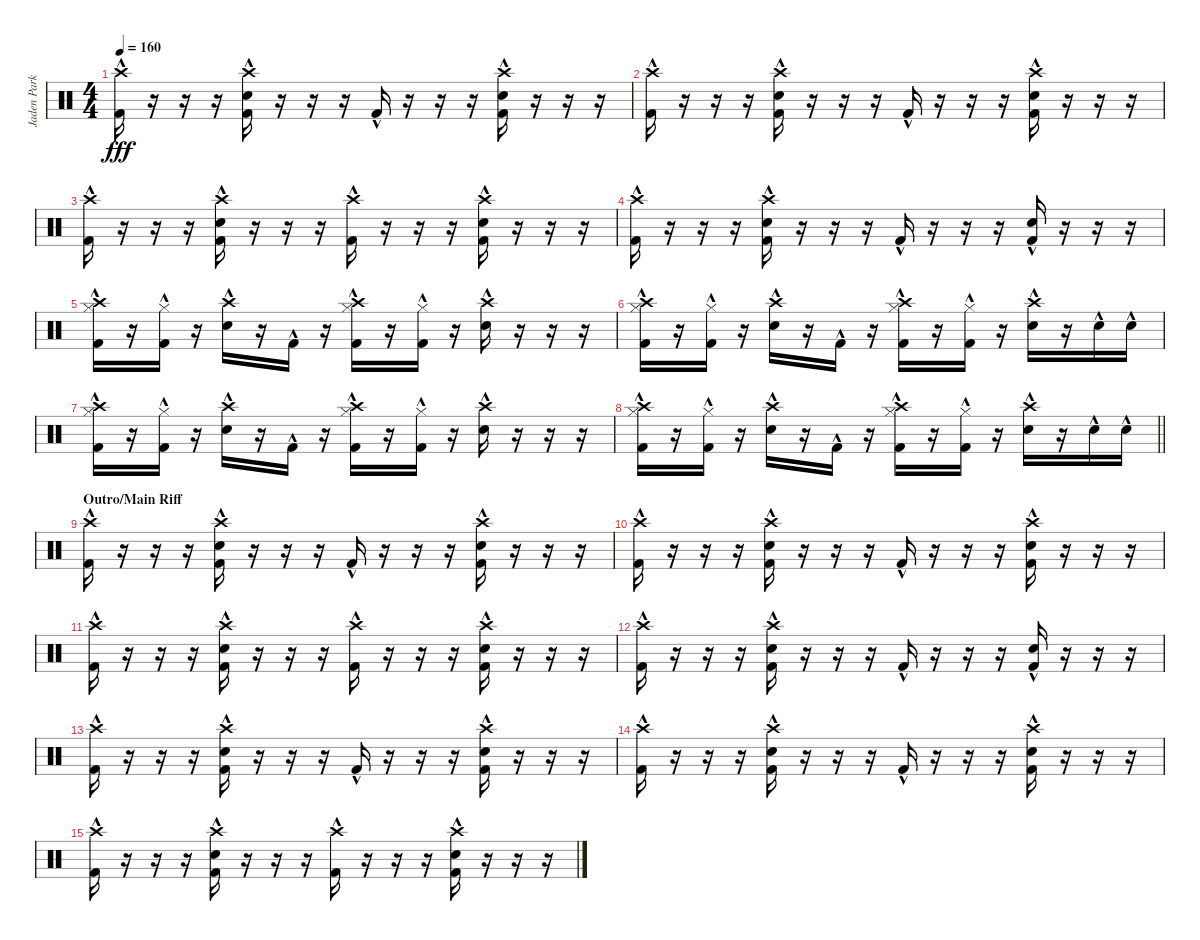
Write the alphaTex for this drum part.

\track ("Jaden Parkes" "Jaden Park") {instrument percussion}
\staff {score}
\articulation defaults
\ts (4 4)
\tempo 160
\clef neutral
\ks c
("Crash high (hit)" "Kick (hit) 2"{hac}).16{dy fff} r.16 r.16 r.16 ("Crash high (hit)"{hac} "Electric Snare (hit)" "Kick (hit) 2"{hac}).16 r.16 r.16 r.16 "Kick (hit) 2"{hac}.16 r.16 r.16 r.16 ("Crash high (hit)"{hac} "Electric Snare (hit)" "Kick (hit) 2"{hac}).16 r.16 r.16 r.16 |
("Crash high (hit)" "Kick (hit) 2"{hac}).16 r.16 r.16 r.16 ("Crash high (hit)"{hac} "Electric Snare (hit)" "Kick (hit) 2"{hac}).16 r.16 r.16 r.16 "Kick (hit) 2"{hac}.16 r.16 r.16 r.16 ("Crash high (hit)"{hac} "Electric Snare (hit)" "Kick (hit) 2"{hac}).16 r.16 r.16 r.16 |
("Crash high (hit)" "Kick (hit) 2"{hac}).16 r.16 r.16 r.16 ("Crash high (hit)"{hac} "Electric Snare (hit)" "Kick (hit) 2"{hac}).16 r.16 r.16 r.16 ("Crash high (hit)" "Kick (hit) 2"{hac}).16 r.16 r.16 r.16 ("Crash high (hit)"{hac} "Electric Snare (hit)" "Kick (hit) 2"{hac}).16 r.16 r.16 r.16 |
("Crash high (hit)" "Kick (hit) 2"{hac}).16 r.16 r.16 r.16 ("Crash high (hit)"{hac} "Electric Snare (hit)" "Kick (hit) 2"{hac}).16 r.16 r.16 r.16 "Kick (hit) 2"{hac}.16 r.16 r.16 r.16 ("Electric Snare (hit)" "Kick (hit) 2"{hac}).16 r.16 r.16 r.16 |
("Hi-Hat (closed)"{hac} "Crash high (hit)" "Kick (hit) 2"{hac}).16 r.16 ("Hi-Hat (closed)"{hac} "Kick (hit) 2"{hac}).16 r.16 ("Crash high (hit)"{hac} "Electric Snare (hit)"{hac}).16 r.16 "Kick (hit) 2"{hac}.16 r.16 ("Hi-Hat (closed)"{hac} "Crash high (hit)" "Kick (hit) 2"{hac}).16 r.16 ("Hi-Hat (closed)"{hac} "Kick (hit) 2"{hac}).16 r.16 ("Crash high (hit)"{hac} "Electric Snare (hit)"{hac}).16 r.16 r.16 r.16 |
("Hi-Hat (closed)"{hac} "Crash high (hit)" "Kick (hit) 2"{hac}).16 r.16 ("Hi-Hat (closed)"{hac} "Kick (hit) 2"{hac}).16 r.16 ("Crash high (hit)"{hac} "Electric Snare (hit)"{hac}).16 r.16 "Kick (hit) 2"{hac}.16 r.16 ("Hi-Hat (closed)"{hac} "Crash high (hit)" "Kick (hit) 2"{hac}).16 r.16 ("Hi-Hat (closed)"{hac} "Kick (hit) 2"{hac}).16 r.16 ("Crash high (hit)"{hac} "Electric Snare (hit)"{hac}).16 r.16 "Electric Snare (hit)"{hac}.16 "Electric Snare (hit)"{hac}.16 |
("Hi-Hat (closed)"{hac} "Crash high (hit)" "Kick (hit) 2"{hac}).16 r.16 ("Hi-Hat (closed)"{hac} "Kick (hit) 2"{hac}).16 r.16 ("Crash high (hit)"{hac} "Electric Snare (hit)"{hac}).16 r.16 "Kick (hit) 2"{hac}.16 r.16 ("Hi-Hat (closed)"{hac} "Crash high (hit)" "Kick (hit) 2"{hac}).16 r.16 ("Hi-Hat (closed)"{hac} "Kick (hit) 2"{hac}).16 r.16 ("Crash high (hit)"{hac} "Electric Snare (hit)"{hac}).16 r.16 r.16 r.16 |
\barLineRight lightlight
("Hi-Hat (closed)"{hac} "Crash high (hit)" "Kick (hit) 2"{hac}).16 r.16 ("Hi-Hat (closed)"{hac} "Kick (hit) 2"{hac}).16 r.16 ("Crash high (hit)"{hac} "Electric Snare (hit)"{hac}).16 r.16 "Kick (hit) 2"{hac}.16 r.16 ("Hi-Hat (closed)"{hac} "Crash high (hit)" "Kick (hit) 2"{hac}).16 r.16 ("Hi-Hat (closed)"{hac} "Kick (hit) 2"{hac}).16 r.16 ("Crash high (hit)"{hac} "Electric Snare (hit)"{hac}).16 r.16 "Electric Snare (hit)"{hac}.16 "Electric Snare (hit)"{hac}.16 |
\section ("" "Outro/Main Riff")
("Crash high (hit)" "Kick (hit) 2"{hac}).16{volume 16} r.16 r.16 r.16 ("Crash high (hit)"{hac} "Electric Snare (hit)" "Kick (hit) 2"{hac}).16 r.16 r.16 r.16 "Kick (hit) 2"{hac}.16 r.16 r.16 r.16 ("Crash high (hit)"{hac} "Electric Snare (hit)" "Kick (hit) 2"{hac}).16 r.16 r.16 r.16 |
("Crash high (hit)" "Kick (hit) 2"{hac}).16 r.16 r.16 r.16 ("Crash high (hit)"{hac} "Electric Snare (hit)" "Kick (hit) 2"{hac}).16 r.16 r.16 r.16 "Kick (hit) 2"{hac}.16 r.16 r.16 r.16 ("Crash high (hit)"{hac} "Electric Snare (hit)" "Kick (hit) 2"{hac}).16 r.16 r.16 r.16 |
("Crash high (hit)" "Kick (hit) 2"{hac}).16 r.16 r.16 r.16 ("Crash high (hit)"{hac} "Electric Snare (hit)" "Kick (hit) 2"{hac}).16 r.16 r.16 r.16 ("Crash high (hit)" "Kick (hit) 2"{hac}).16 r.16 r.16 r.16 ("Crash high (hit)"{hac} "Electric Snare (hit)" "Kick (hit) 2"{hac}).16 r.16 r.16 r.16 |
("Crash high (hit)" "Kick (hit) 2"{hac}).16 r.16 r.16 r.16 ("Crash high (hit)"{hac} "Electric Snare (hit)" "Kick (hit) 2"{hac}).16 r.16 r.16 r.16 "Kick (hit) 2"{hac}.16 r.16 r.16 r.16 ("Electric Snare (hit)" "Kick (hit) 2"{hac}).16 r.16 r.16 r.16 |
("Crash high (hit)" "Kick (hit) 2"{hac}).16 r.16 r.16 r.16 ("Crash high (hit)"{hac} "Electric Snare (hit)" "Kick (hit) 2"{hac}).16 r.16 r.16 r.16 "Kick (hit) 2"{hac}.16 r.16 r.16 r.16 ("Crash high (hit)"{hac} "Electric Snare (hit)" "Kick (hit) 2"{hac}).16 r.16 r.16 r.16 |
("Crash high (hit)" "Kick (hit) 2"{hac}).16 r.16 r.16 r.16 ("Crash high (hit)"{hac} "Electric Snare (hit)" "Kick (hit) 2"{hac}).16 r.16 r.16 r.16 "Kick (hit) 2"{hac}.16 r.16 r.16 r.16 ("Crash high (hit)"{hac} "Electric Snare (hit)" "Kick (hit) 2"{hac}).16 r.16 r.16 r.16 |
("Crash high (hit)" "Kick (hit) 2"{hac}).16 r.16 r.16 r.16 ("Crash high (hit)"{hac} "Electric Snare (hit)" "Kick (hit) 2"{hac}).16 r.16 r.16 r.16 ("Crash high (hit)" "Kick (hit) 2"{hac}).16 r.16 r.16 r.16 ("Crash high (hit)"{hac} "Electric Snare (hit)" "Kick (hit) 2"{hac}).16 r.16 r.16 r.16
